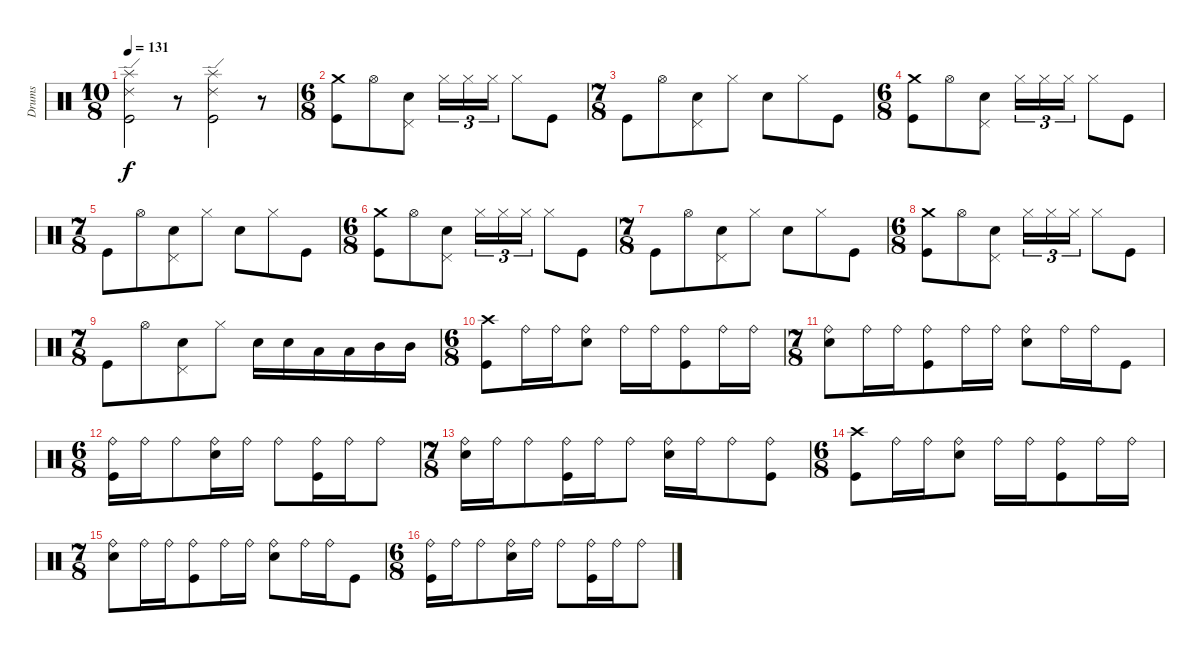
\track ("Drums" "Drums") {instrument percussion}
\staff {score}
\articulation defaults
\ts (10 8)
\tempo 131
\clef neutral
\ks c
("Splash (hit)" "Ride (edge) 2" "Kick (hit)").2{dy f} r.8 ("Splash (hit)" "Ride (edge) 2" "Kick (hit)").2 r.8 |
\ts (6 8)
("Crash medium (hit)" "Kick (hit)").8 "Hi-Hat (open)".8 ("Snare (hit) 2" "Pedal Hi-Hat (hit)").8 "Hi-Hat (closed)".16{tu (3 2)} "Hi-Hat (closed)".16{tu (3 2)} "Hi-Hat (closed)".16{tu (3 2)} "Hi-Hat (closed)".8 "Kick (hit)".8 |
\ts (7 8)
"Kick (hit)".8 "Hi-Hat (open)".8 ("Snare (hit) 2" "Pedal Hi-Hat (hit)").8 "Hi-Hat (closed)".8 "Snare (hit) 2".8 "Hi-Hat (closed)".8 "Kick (hit)".8 |
\ts (6 8)
("Crash medium (hit)" "Kick (hit)").8 "Hi-Hat (open)".8 ("Snare (hit) 2" "Pedal Hi-Hat (hit)").8 "Hi-Hat (closed)".16{tu (3 2)} "Hi-Hat (closed)".16{tu (3 2)} "Hi-Hat (closed)".16{tu (3 2)} "Hi-Hat (closed)".8 "Kick (hit)".8 |
\ts (7 8)
"Kick (hit)".8 "Hi-Hat (open)".8 ("Snare (hit) 2" "Pedal Hi-Hat (hit)").8 "Hi-Hat (closed)".8 "Snare (hit) 2".8 "Hi-Hat (closed)".8 "Kick (hit)".8 |
\ts (6 8)
("Crash medium (hit)" "Kick (hit)").8 "Hi-Hat (open)".8 ("Snare (hit) 2" "Pedal Hi-Hat (hit)").8 "Hi-Hat (closed)".16{tu (3 2)} "Hi-Hat (closed)".16{tu (3 2)} "Hi-Hat (closed)".16{tu (3 2)} "Hi-Hat (closed)".8 "Kick (hit)".8 |
\ts (7 8)
"Kick (hit)".8 "Hi-Hat (open)".8 ("Snare (hit) 2" "Pedal Hi-Hat (hit)").8 "Hi-Hat (closed)".8 "Snare (hit) 2".8 "Hi-Hat (closed)".8 "Kick (hit)".8 |
\ts (6 8)
("Crash medium (hit)" "Kick (hit)").8 "Hi-Hat (open)".8 ("Snare (hit) 2" "Pedal Hi-Hat (hit)").8 "Hi-Hat (closed)".16{tu (3 2)} "Hi-Hat (closed)".16{tu (3 2)} "Hi-Hat (closed)".16{tu (3 2)} "Hi-Hat (closed)".8 "Kick (hit)".8 |
\ts (7 8)
"Kick (hit)".8 "Hi-Hat (open)".8 ("Snare (hit) 2" "Pedal Hi-Hat (hit)").8 "Hi-Hat (closed)".8 "Electric Snare (hit)".16 "Electric Snare (hit)".16 "Low Tom (hit)".16 "Low Tom (hit)".16 "Mid Tom (hit)".16 "Mid Tom (hit)".16 |
\ts (6 8)
("Crash high (hit)" "Kick (hit)").8 "Ride (bell)".16 "Ride (bell)".16 ("Ride (bell)" "Snare (hit) 2").8 "Ride (bell)".16 "Ride (bell)".16 ("Ride (bell)" "Kick (hit)").8 "Ride (bell)".16 "Ride (bell)".16 |
\ts (7 8)
("Ride (bell)" "Snare (hit) 2").8 "Ride (bell)".16 "Ride (bell)".16 ("Ride (bell)" "Kick (hit)").8 "Ride (bell)".16 "Ride (bell)".16 ("Ride (bell)" "Snare (hit) 2").8 "Ride (bell)".16 "Ride (bell)".16 "Kick (hit)".8 |
\ts (6 8)
("Ride (bell)" "Kick (hit)").16 "Ride (bell)".16 "Ride (bell)".8 ("Ride (bell)" "Snare (hit) 2").16 "Ride (bell)".16 "Ride (bell)".8 ("Ride (bell)" "Kick (hit)").16 "Ride (bell)".16 "Ride (bell)".8 |
\ts (7 8)
("Ride (bell)" "Snare (hit) 2").16 "Ride (bell)".16 "Ride (bell)".8 ("Ride (bell)" "Kick (hit)").16 "Ride (bell)".16 "Ride (bell)".8 ("Ride (bell)" "Snare (hit) 2").16 "Ride (bell)".16 "Ride (bell)".8 ("Ride (bell)" "Kick (hit)").8 |
\ts (6 8)
("Crash high (hit)" "Kick (hit)").8 "Ride (bell)".16 "Ride (bell)".16 ("Ride (bell)" "Snare (hit) 2").8 "Ride (bell)".16 "Ride (bell)".16 ("Ride (bell)" "Kick (hit)").8 "Ride (bell)".16 "Ride (bell)".16 |
\ts (7 8)
("Ride (bell)" "Snare (hit) 2").8 "Ride (bell)".16 "Ride (bell)".16 ("Ride (bell)" "Kick (hit)").8 "Ride (bell)".16 "Ride (bell)".16 ("Ride (bell)" "Snare (hit) 2").8 "Ride (bell)".16 "Ride (bell)".16 "Kick (hit)".8 |
\ts (6 8)
("Ride (bell)" "Kick (hit)").16 "Ride (bell)".16 "Ride (bell)".8 ("Ride (bell)" "Snare (hit) 2").16 "Ride (bell)".16 "Ride (bell)".8 ("Ride (bell)" "Kick (hit)").16 "Ride (bell)".16 "Ride (bell)".8
